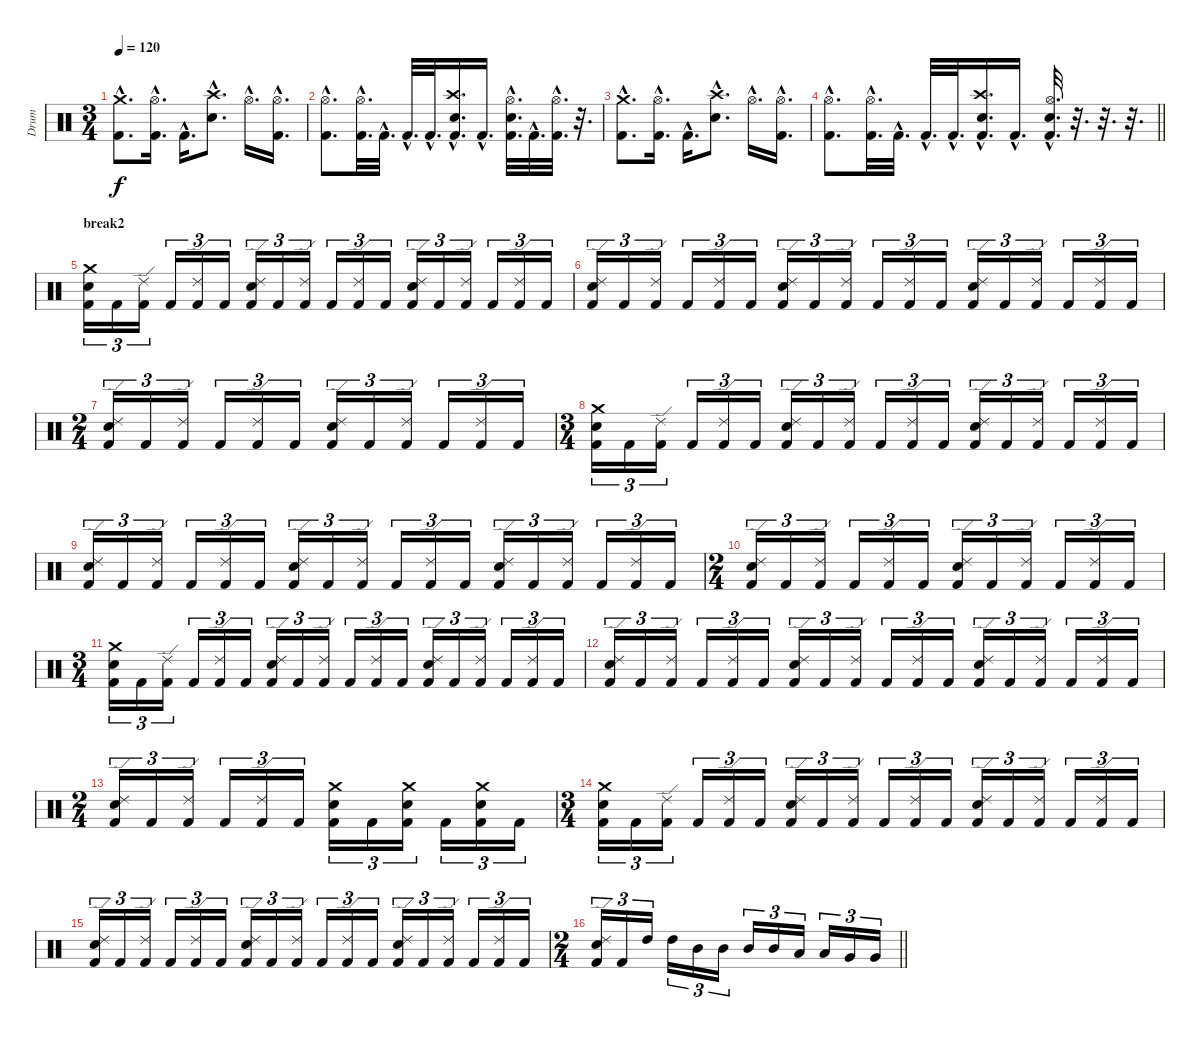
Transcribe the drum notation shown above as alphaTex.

\track ("Drum" "Drum") {instrument percussion}
\staff {score}
\articulation defaults
\ts (3 4)
\tempo 120
\clef neutral
\ks c
("Crash medium (hit)"{hac} "Kick (hit) 2"{hac}).8{d dy f} ("Hi-Hat (open)"{hac} "Kick (hit) 2"{hac}).16{d} "Kick (hit) 2"{hac}.16{d} ("Crash high (hit)"{hac} "Snare (hit) 2"{hac}).8{d} "Hi-Hat (open)"{hac}.16{d} ("Hi-Hat (open)"{hac} "Kick (hit) 2"{hac}).16{d} |
("Hi-Hat (open)"{hac} "Kick (hit) 2"{hac}).8{d} ("Hi-Hat (open)"{hac} "Kick (hit) 2"{hac}).32{d} "Kick (hit) 2"{hac}.32{d} "Kick (hit) 2"{hac}.32{d} "Kick (hit) 2"{hac}.32{d} ("Crash high (hit)"{hac} "Snare (hit) 2"{hac} "Kick (hit) 2"{hac}).16{d} "Kick (hit) 2"{hac}.16{d} ("Hi-Hat (open)"{hac} "Snare (hit) 2"{hac} "Kick (hit) 2"{hac}).32{d} "Kick (hit) 2"{hac}.32{d} ("Hi-Hat (open)"{hac} "Kick (hit) 2"{hac}).32{d} r.32{d} |
("Crash medium (hit)"{hac} "Kick (hit) 2"{hac}).8{d} ("Hi-Hat (open)"{hac} "Kick (hit) 2"{hac}).16{d} "Kick (hit) 2"{hac}.16{d} ("Crash high (hit)"{hac} "Snare (hit) 2"{hac}).8{d} "Hi-Hat (open)"{hac}.16{d} ("Hi-Hat (open)"{hac} "Kick (hit) 2"{hac}).16{d} |
\barLineRight lightlight
("Hi-Hat (open)"{hac} "Kick (hit) 2"{hac}).8{d} ("Hi-Hat (open)"{hac} "Kick (hit) 2"{hac}).32{d} "Kick (hit) 2"{hac}.32{d} "Kick (hit) 2"{hac}.32{d} "Kick (hit) 2"{hac}.32{d} ("Crash high (hit)"{hac} "Snare (hit) 2"{hac} "Kick (hit) 2"{hac}).16{d} "Kick (hit) 2"{hac}.16{d} ("Hi-Hat (open)"{hac} "Snare (hit) 2"{hac} "Kick (hit) 2"{hac}).32{d} r.32{d} r.32{d} r.32{d} |
\section ("" "break2")
("Crash medium (hit)" "Snare (hit) 2" "Kick (hit) 2").16{tu (3 2)} "Kick (hit) 2".16{tu (3 2)} ("Ride (edge) 2" "Kick (hit) 2").16{tu (3 2)} "Kick (hit) 2".16{tu (3 2)} ("Ride (edge) 2" "Kick (hit) 2").16{tu (3 2)} "Kick (hit) 2".16{tu (3 2)} ("Ride (edge) 2" "Snare (hit) 2" "Kick (hit) 2").16{tu (3 2)} "Kick (hit) 2".16{tu (3 2)} ("Ride (edge) 2" "Kick (hit) 2").16{tu (3 2)} "Kick (hit) 2".16{tu (3 2)} ("Ride (edge) 2" "Kick (hit) 2").16{tu (3 2)} "Kick (hit) 2".16{tu (3 2)} ("Ride (edge) 2" "Snare (hit) 2" "Kick (hit) 2").16{tu (3 2)} "Kick (hit) 2".16{tu (3 2)} ("Ride (edge) 2" "Kick (hit) 2").16{tu (3 2)} "Kick (hit) 2".16{tu (3 2)} ("Ride (edge) 2" "Kick (hit) 2").16{tu (3 2)} "Kick (hit) 2".16{tu (3 2)} |
("Ride (edge) 2" "Snare (hit) 2" "Kick (hit) 2").16{tu (3 2)} "Kick (hit) 2".16{tu (3 2)} ("Ride (edge) 2" "Kick (hit) 2").16{tu (3 2)} "Kick (hit) 2".16{tu (3 2)} ("Ride (edge) 2" "Kick (hit) 2").16{tu (3 2)} "Kick (hit) 2".16{tu (3 2)} ("Ride (edge) 2" "Snare (hit) 2" "Kick (hit) 2").16{tu (3 2)} "Kick (hit) 2".16{tu (3 2)} ("Ride (edge) 2" "Kick (hit) 2").16{tu (3 2)} "Kick (hit) 2".16{tu (3 2)} ("Ride (edge) 2" "Kick (hit) 2").16{tu (3 2)} "Kick (hit) 2".16{tu (3 2)} ("Ride (edge) 2" "Snare (hit) 2" "Kick (hit) 2").16{tu (3 2)} "Kick (hit) 2".16{tu (3 2)} ("Ride (edge) 2" "Kick (hit) 2").16{tu (3 2)} "Kick (hit) 2".16{tu (3 2)} ("Ride (edge) 2" "Kick (hit) 2").16{tu (3 2)} "Kick (hit) 2".16{tu (3 2)} |
\ts (2 4)
("Ride (edge) 2" "Snare (hit) 2" "Kick (hit) 2").16{tu (3 2)} "Kick (hit) 2".16{tu (3 2)} ("Ride (edge) 2" "Kick (hit) 2").16{tu (3 2)} "Kick (hit) 2".16{tu (3 2)} ("Ride (edge) 2" "Kick (hit) 2").16{tu (3 2)} "Kick (hit) 2".16{tu (3 2)} ("Ride (edge) 2" "Snare (hit) 2" "Kick (hit) 2").16{tu (3 2)} "Kick (hit) 2".16{tu (3 2)} ("Ride (edge) 2" "Kick (hit) 2").16{tu (3 2)} "Kick (hit) 2".16{tu (3 2)} ("Ride (edge) 2" "Kick (hit) 2").16{tu (3 2)} "Kick (hit) 2".16{tu (3 2)} |
\ts (3 4)
("Crash medium (hit)" "Snare (hit) 2" "Kick (hit) 2").16{tu (3 2)} "Kick (hit) 2".16{tu (3 2)} ("Ride (edge) 2" "Kick (hit) 2").16{tu (3 2)} "Kick (hit) 2".16{tu (3 2)} ("Ride (edge) 2" "Kick (hit) 2").16{tu (3 2)} "Kick (hit) 2".16{tu (3 2)} ("Ride (edge) 2" "Snare (hit) 2" "Kick (hit) 2").16{tu (3 2)} "Kick (hit) 2".16{tu (3 2)} ("Ride (edge) 2" "Kick (hit) 2").16{tu (3 2)} "Kick (hit) 2".16{tu (3 2)} ("Ride (edge) 2" "Kick (hit) 2").16{tu (3 2)} "Kick (hit) 2".16{tu (3 2)} ("Ride (edge) 2" "Snare (hit) 2" "Kick (hit) 2").16{tu (3 2)} "Kick (hit) 2".16{tu (3 2)} ("Ride (edge) 2" "Kick (hit) 2").16{tu (3 2)} "Kick (hit) 2".16{tu (3 2)} ("Ride (edge) 2" "Kick (hit) 2").16{tu (3 2)} "Kick (hit) 2".16{tu (3 2)} |
("Ride (edge) 2" "Snare (hit) 2" "Kick (hit) 2").16{tu (3 2)} "Kick (hit) 2".16{tu (3 2)} ("Ride (edge) 2" "Kick (hit) 2").16{tu (3 2)} "Kick (hit) 2".16{tu (3 2)} ("Ride (edge) 2" "Kick (hit) 2").16{tu (3 2)} "Kick (hit) 2".16{tu (3 2)} ("Ride (edge) 2" "Snare (hit) 2" "Kick (hit) 2").16{tu (3 2)} "Kick (hit) 2".16{tu (3 2)} ("Ride (edge) 2" "Kick (hit) 2").16{tu (3 2)} "Kick (hit) 2".16{tu (3 2)} ("Ride (edge) 2" "Kick (hit) 2").16{tu (3 2)} "Kick (hit) 2".16{tu (3 2)} ("Ride (edge) 2" "Snare (hit) 2" "Kick (hit) 2").16{tu (3 2)} "Kick (hit) 2".16{tu (3 2)} ("Ride (edge) 2" "Kick (hit) 2").16{tu (3 2)} "Kick (hit) 2".16{tu (3 2)} ("Ride (edge) 2" "Kick (hit) 2").16{tu (3 2)} "Kick (hit) 2".16{tu (3 2)} |
\ts (2 4)
("Ride (edge) 2" "Snare (hit) 2" "Kick (hit) 2").16{tu (3 2)} "Kick (hit) 2".16{tu (3 2)} ("Ride (edge) 2" "Kick (hit) 2").16{tu (3 2)} "Kick (hit) 2".16{tu (3 2)} ("Ride (edge) 2" "Kick (hit) 2").16{tu (3 2)} "Kick (hit) 2".16{tu (3 2)} ("Ride (edge) 2" "Snare (hit) 2" "Kick (hit) 2").16{tu (3 2)} "Kick (hit) 2".16{tu (3 2)} ("Ride (edge) 2" "Kick (hit) 2").16{tu (3 2)} "Kick (hit) 2".16{tu (3 2)} ("Ride (edge) 2" "Kick (hit) 2").16{tu (3 2)} "Kick (hit) 2".16{tu (3 2)} |
\ts (3 4)
("Crash medium (hit)" "Snare (hit) 2" "Kick (hit) 2").16{tu (3 2)} "Kick (hit) 2".16{tu (3 2)} ("Ride (edge) 2" "Kick (hit) 2").16{tu (3 2)} "Kick (hit) 2".16{tu (3 2)} ("Ride (edge) 2" "Kick (hit) 2").16{tu (3 2)} "Kick (hit) 2".16{tu (3 2)} ("Ride (edge) 2" "Snare (hit) 2" "Kick (hit) 2").16{tu (3 2)} "Kick (hit) 2".16{tu (3 2)} ("Ride (edge) 2" "Kick (hit) 2").16{tu (3 2)} "Kick (hit) 2".16{tu (3 2)} ("Ride (edge) 2" "Kick (hit) 2").16{tu (3 2)} "Kick (hit) 2".16{tu (3 2)} ("Ride (edge) 2" "Snare (hit) 2" "Kick (hit) 2").16{tu (3 2)} "Kick (hit) 2".16{tu (3 2)} ("Ride (edge) 2" "Kick (hit) 2").16{tu (3 2)} "Kick (hit) 2".16{tu (3 2)} ("Ride (edge) 2" "Kick (hit) 2").16{tu (3 2)} "Kick (hit) 2".16{tu (3 2)} |
("Ride (edge) 2" "Snare (hit) 2" "Kick (hit) 2").16{tu (3 2)} "Kick (hit) 2".16{tu (3 2)} ("Ride (edge) 2" "Kick (hit) 2").16{tu (3 2)} "Kick (hit) 2".16{tu (3 2)} ("Ride (edge) 2" "Kick (hit) 2").16{tu (3 2)} "Kick (hit) 2".16{tu (3 2)} ("Ride (edge) 2" "Snare (hit) 2" "Kick (hit) 2").16{tu (3 2)} "Kick (hit) 2".16{tu (3 2)} ("Ride (edge) 2" "Kick (hit) 2").16{tu (3 2)} "Kick (hit) 2".16{tu (3 2)} ("Ride (edge) 2" "Kick (hit) 2").16{tu (3 2)} "Kick (hit) 2".16{tu (3 2)} ("Ride (edge) 2" "Snare (hit) 2" "Kick (hit) 2").16{tu (3 2)} "Kick (hit) 2".16{tu (3 2)} ("Ride (edge) 2" "Kick (hit) 2").16{tu (3 2)} "Kick (hit) 2".16{tu (3 2)} ("Ride (edge) 2" "Kick (hit) 2").16{tu (3 2)} "Kick (hit) 2".16{tu (3 2)} |
\ts (2 4)
("Ride (edge) 2" "Snare (hit) 2" "Kick (hit) 2").16{tu (3 2)} "Kick (hit) 2".16{tu (3 2)} ("Ride (edge) 2" "Kick (hit) 2").16{tu (3 2)} "Kick (hit) 2".16{tu (3 2)} ("Ride (edge) 2" "Kick (hit) 2").16{tu (3 2)} "Kick (hit) 2".16{tu (3 2)} ("Crash medium (hit)" "Snare (hit) 2" "Kick (hit) 2").16{tu (3 2)} "Kick (hit) 2".16{tu (3 2)} ("Crash medium (hit)" "Snare (hit) 2" "Kick (hit) 2").16{tu (3 2)} "Kick (hit) 2".16{tu (3 2)} ("Crash medium (hit)" "Snare (hit) 2" "Kick (hit) 2").16{tu (3 2)} "Kick (hit) 2".16{tu (3 2)} |
\ts (3 4)
("Crash medium (hit)" "Snare (hit) 2" "Kick (hit) 2").16{tu (3 2)} "Kick (hit) 2".16{tu (3 2)} ("Ride (edge) 2" "Kick (hit) 2").16{tu (3 2)} "Kick (hit) 2".16{tu (3 2)} ("Ride (edge) 2" "Kick (hit) 2").16{tu (3 2)} "Kick (hit) 2".16{tu (3 2)} ("Ride (edge) 2" "Snare (hit) 2" "Kick (hit) 2").16{tu (3 2)} "Kick (hit) 2".16{tu (3 2)} ("Ride (edge) 2" "Kick (hit) 2").16{tu (3 2)} "Kick (hit) 2".16{tu (3 2)} ("Ride (edge) 2" "Kick (hit) 2").16{tu (3 2)} "Kick (hit) 2".16{tu (3 2)} ("Ride (edge) 2" "Snare (hit) 2" "Kick (hit) 2").16{tu (3 2)} "Kick (hit) 2".16{tu (3 2)} ("Ride (edge) 2" "Kick (hit) 2").16{tu (3 2)} "Kick (hit) 2".16{tu (3 2)} ("Ride (edge) 2" "Kick (hit) 2").16{tu (3 2)} "Kick (hit) 2".16{tu (3 2)} |
("Ride (edge) 2" "Snare (hit) 2" "Kick (hit) 2").16{tu (3 2)} "Kick (hit) 2".16{tu (3 2)} ("Ride (edge) 2" "Kick (hit) 2").16{tu (3 2)} "Kick (hit) 2".16{tu (3 2)} ("Ride (edge) 2" "Kick (hit) 2").16{tu (3 2)} "Kick (hit) 2".16{tu (3 2)} ("Ride (edge) 2" "Snare (hit) 2" "Kick (hit) 2").16{tu (3 2)} "Kick (hit) 2".16{tu (3 2)} ("Ride (edge) 2" "Kick (hit) 2").16{tu (3 2)} "Kick (hit) 2".16{tu (3 2)} ("Ride (edge) 2" "Kick (hit) 2").16{tu (3 2)} "Kick (hit) 2".16{tu (3 2)} ("Ride (edge) 2" "Snare (hit) 2" "Kick (hit) 2").16{tu (3 2)} "Kick (hit) 2".16{tu (3 2)} ("Ride (edge) 2" "Kick (hit) 2").16{tu (3 2)} "Kick (hit) 2".16{tu (3 2)} ("Ride (edge) 2" "Kick (hit) 2").16{tu (3 2)} "Kick (hit) 2".16{tu (3 2)} |
\ts (2 4)
\barLineRight lightlight
("Ride (edge) 2" "Snare (hit) 2" "Kick (hit) 2").16{tu (3 2)} "Kick (hit) 2".16{tu (3 2)} "High Tom (hit)".16{tu (3 2)} "High Tom (hit)".16{tu (3 2)} "Mid Tom (hit)".16{tu (3 2)} "Mid Tom (hit)".16{tu (3 2)} "Mid Tom (hit)".16{tu (3 2)} "Mid Tom (hit)".16{tu (3 2)} "Low Tom (hit)".16{tu (3 2)} "Low Tom (hit)".16{tu (3 2)} "Very Low Tom (hit)".16{tu (3 2)} "Very Low Tom (hit)".16{tu (3 2)}
